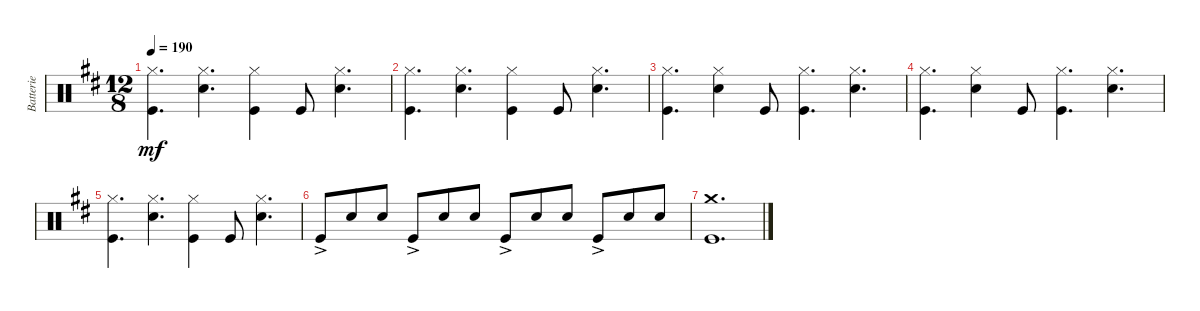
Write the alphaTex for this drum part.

\track ("Batterie" "Batterie") {instrument percussion}
\staff {score}
\articulation defaults
\ts (12 8)
\tempo 190
\clef neutral
\ks d
("Hi-Hat (closed)" "Kick (hit)").4{d dy mf} ("Hi-Hat (closed)" "Snare (hit) 2").4{d} ("Hi-Hat (closed)" "Kick (hit)").4 "Kick (hit)".8 ("Hi-Hat (closed)" "Snare (hit) 2").4{d} |
("Hi-Hat (closed)" "Kick (hit)").4{d} ("Hi-Hat (closed)" "Snare (hit) 2").4{d} ("Hi-Hat (closed)" "Kick (hit)").4 "Kick (hit)".8 ("Hi-Hat (closed)" "Snare (hit) 2").4{d} |
("Hi-Hat (closed)" "Kick (hit)").4{d} ("Hi-Hat (closed)" "Snare (hit) 2").4 "Kick (hit)".8 ("Hi-Hat (closed)" "Kick (hit)").4{d} ("Hi-Hat (closed)" "Snare (hit) 2").4{d} |
("Hi-Hat (closed)" "Kick (hit)").4{d} ("Hi-Hat (closed)" "Snare (hit) 2").4 "Kick (hit)".8 ("Hi-Hat (closed)" "Kick (hit)").4{d} ("Hi-Hat (closed)" "Snare (hit) 2").4{d} |
("Hi-Hat (closed)" "Kick (hit)").4{d} ("Hi-Hat (closed)" "Snare (hit) 2").4{d} ("Hi-Hat (closed)" "Kick (hit)").4 "Kick (hit)".8 ("Hi-Hat (closed)" "Snare (hit) 2").4{d} |
"Kick (hit)"{ac}.8 "Snare (hit) 2".8 "Snare (hit) 2".8 "Kick (hit)"{ac}.8 "Snare (hit) 2".8 "Snare (hit) 2".8 "Kick (hit)"{ac}.8 "Snare (hit) 2".8 "Snare (hit) 2".8 "Kick (hit)"{ac}.8 "Snare (hit) 2".8 "Snare (hit) 2".8 |
("Crash medium (hit)" "Kick (hit)").1{d}
